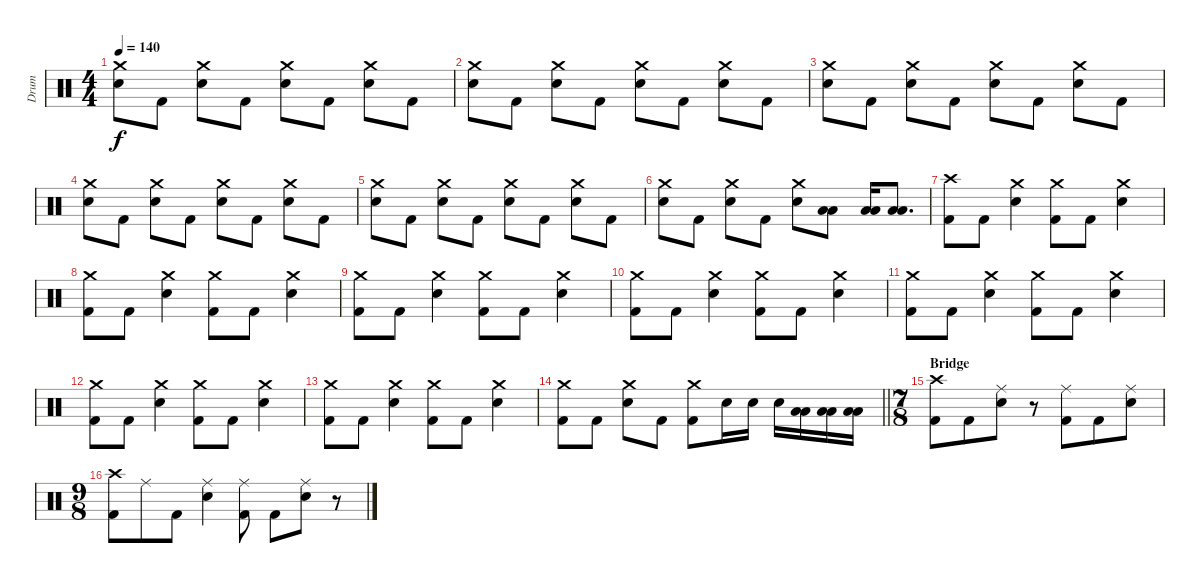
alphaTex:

\track ("Drum" "Drum") {instrument percussion}
\staff {score}
\articulation defaults
\ts (4 4)
\tempo 140
\clef neutral
\ks c
("Crash medium (hit)" "Electric Snare (hit)").8{dy f} "Kick (hit) 2".8 ("Crash medium (hit)" "Electric Snare (hit)").8 "Kick (hit) 2".8 ("Crash medium (hit)" "Electric Snare (hit)").8 "Kick (hit) 2".8 ("Crash medium (hit)" "Electric Snare (hit)").8 "Kick (hit) 2".8 |
("Crash medium (hit)" "Electric Snare (hit)").8 "Kick (hit) 2".8 ("Crash medium (hit)" "Electric Snare (hit)").8 "Kick (hit) 2".8 ("Crash medium (hit)" "Electric Snare (hit)").8 "Kick (hit) 2".8 ("Crash medium (hit)" "Electric Snare (hit)").8 "Kick (hit) 2".8 |
("Crash medium (hit)" "Electric Snare (hit)").8 "Kick (hit) 2".8 ("Crash medium (hit)" "Electric Snare (hit)").8 "Kick (hit) 2".8 ("Crash medium (hit)" "Electric Snare (hit)").8 "Kick (hit) 2".8 ("Crash medium (hit)" "Electric Snare (hit)").8 "Kick (hit) 2".8 |
("Crash medium (hit)" "Electric Snare (hit)").8 "Kick (hit) 2".8 ("Crash medium (hit)" "Electric Snare (hit)").8 "Kick (hit) 2".8 ("Crash medium (hit)" "Electric Snare (hit)").8 "Kick (hit) 2".8 ("Crash medium (hit)" "Electric Snare (hit)").8 "Kick (hit) 2".8 |
("Crash medium (hit)" "Electric Snare (hit)").8 "Kick (hit) 2".8 ("Crash medium (hit)" "Electric Snare (hit)").8 "Kick (hit) 2".8 ("Crash medium (hit)" "Electric Snare (hit)").8 "Kick (hit) 2".8 ("Crash medium (hit)" "Electric Snare (hit)").8 "Kick (hit) 2".8 |
("Crash medium (hit)" "Electric Snare (hit)").8 "Kick (hit) 2".8 ("Crash medium (hit)" "Electric Snare (hit)").8 "Kick (hit) 2".8 ("Crash medium (hit)" "Electric Snare (hit)").8 ("Low Tom (hit)" "Low Tom (hit)").8 ("Low Tom (hit)" "Low Tom (hit)").16 ("Low Tom (hit)" "Low Tom (hit)").8{d} |
("Crash high (hit)" "Kick (hit) 2").8 "Kick (hit) 2".8 ("Crash medium (hit)" "Electric Snare (hit)").4 ("Crash medium (hit)" "Kick (hit) 2").8 "Kick (hit) 2".8 ("Crash medium (hit)" "Electric Snare (hit)").4 |
("Crash medium (hit)" "Kick (hit) 2").8 "Kick (hit) 2".8 ("Crash medium (hit)" "Electric Snare (hit)").4 ("Crash medium (hit)" "Kick (hit) 2").8 "Kick (hit) 2".8 ("Crash medium (hit)" "Electric Snare (hit)").4 |
("Crash medium (hit)" "Kick (hit) 2").8 "Kick (hit) 2".8 ("Crash medium (hit)" "Electric Snare (hit)").4 ("Crash medium (hit)" "Kick (hit) 2").8 "Kick (hit) 2".8 ("Crash medium (hit)" "Electric Snare (hit)").4 |
("Crash medium (hit)" "Kick (hit) 2").8 "Kick (hit) 2".8 ("Crash medium (hit)" "Electric Snare (hit)").4 ("Crash medium (hit)" "Kick (hit) 2").8 "Kick (hit) 2".8 ("Crash medium (hit)" "Electric Snare (hit)").4 |
("Crash medium (hit)" "Kick (hit) 2").8 "Kick (hit) 2".8 ("Crash medium (hit)" "Electric Snare (hit)").4 ("Crash medium (hit)" "Kick (hit) 2").8 "Kick (hit) 2".8 ("Crash medium (hit)" "Electric Snare (hit)").4 |
("Crash medium (hit)" "Kick (hit) 2").8 "Kick (hit) 2".8 ("Crash medium (hit)" "Electric Snare (hit)").4 ("Crash medium (hit)" "Kick (hit) 2").8 "Kick (hit) 2".8 ("Crash medium (hit)" "Electric Snare (hit)").4 |
("Crash medium (hit)" "Kick (hit) 2").8 "Kick (hit) 2".8 ("Crash medium (hit)" "Electric Snare (hit)").4 ("Crash medium (hit)" "Kick (hit) 2").8 "Kick (hit) 2".8 ("Crash medium (hit)" "Electric Snare (hit)").4 |
\barLineRight lightlight
("Crash medium (hit)" "Kick (hit) 2").8 "Kick (hit) 2".8 ("Crash medium (hit)" "Electric Snare (hit)").8 "Kick (hit) 2".8 ("Crash medium (hit)" "Kick (hit) 2").8 "Electric Snare (hit)".16 "Electric Snare (hit)".16 "Electric Snare (hit)".16 ("Low Tom (hit)" "Low Tom (hit)").16 ("Low Tom (hit)" "Low Tom (hit)").16 ("Low Tom (hit)" "Low Tom (hit)").16 |
\ts (7 8)
\section ("" "Bridge")
("Crash high (hit)" "Kick (hit) 2").8 "Kick (hit) 2".8 ("Ride (middle)" "Electric Snare (hit)").8 r.8 ("Ride (middle)" "Kick (hit) 2").8 "Kick (hit) 2".8 ("Ride (middle)" "Electric Snare (hit)").8 |
\ts (9 8)
("Crash high (hit)" "Kick (hit) 2").8 "Ride (middle)".8 "Kick (hit) 2".8 ("Ride (middle)" "Electric Snare (hit)").4 ("Ride (middle)" "Kick (hit) 2").8 "Kick (hit) 2".8 ("Ride (middle)" "Electric Snare (hit)").8 r.8
